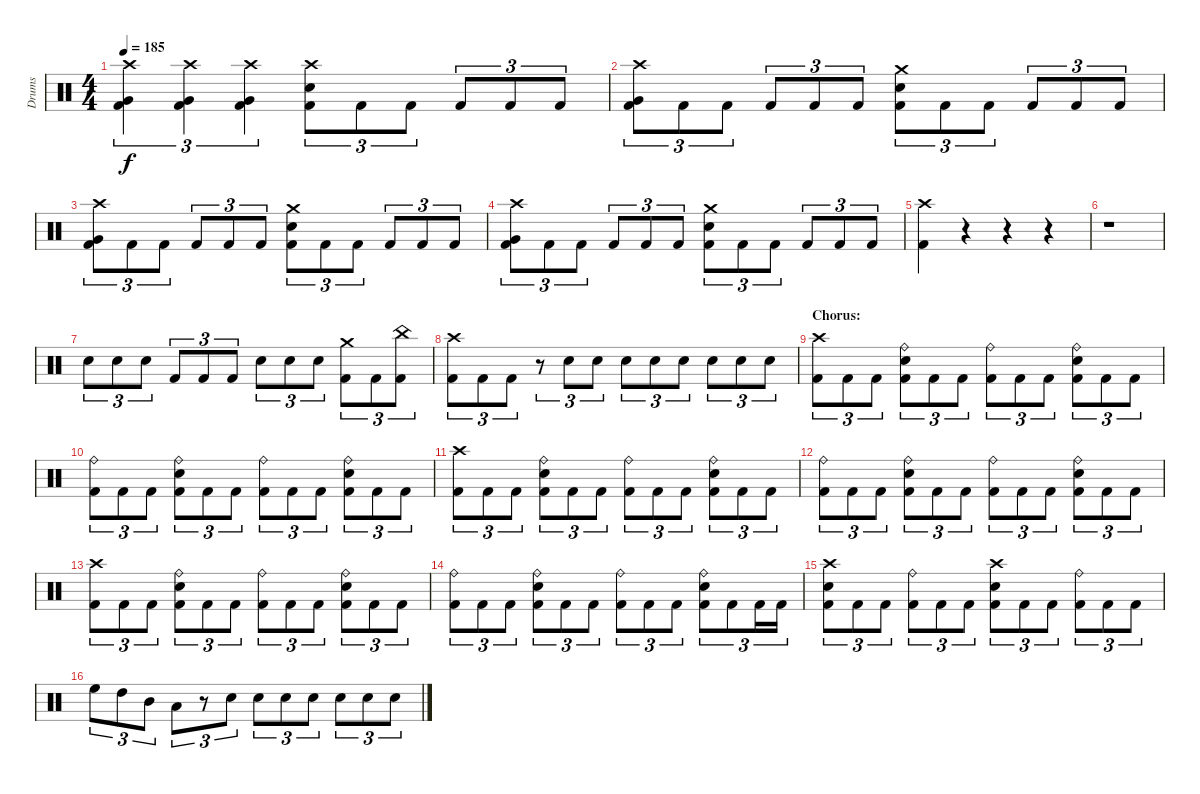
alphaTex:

\track ("Drums" "Drums") {instrument percussion}
\staff {score}
\articulation defaults
\ts (4 4)
\tempo 185
\clef neutral
\ks c
("Crash high (hit)" "Very Low Tom (hit)" "Kick (hit) 2").4{tu (3 2) dy f} ("Crash high (hit)" "Very Low Tom (hit)" "Kick (hit) 2").4{tu (3 2)} ("Crash high (hit)" "Very Low Tom (hit)" "Kick (hit) 2").4{tu (3 2)} ("Crash high (hit)" "Electric Snare (hit)" "Kick (hit) 2").8{tu (3 2)} "Kick (hit) 2".8{tu (3 2)} "Kick (hit) 2".8{tu (3 2)} "Kick (hit) 2".8{tu (3 2)} "Kick (hit) 2".8{tu (3 2)} "Kick (hit) 2".8{tu (3 2)} |
("Crash high (hit)" "Very Low Tom (hit)" "Kick (hit) 2").8{tu (3 2)} "Kick (hit) 2".8{tu (3 2)} "Kick (hit) 2".8{tu (3 2)} "Kick (hit) 2".8{tu (3 2)} "Kick (hit) 2".8{tu (3 2)} "Kick (hit) 2".8{tu (3 2)} ("Crash medium (hit)" "Electric Snare (hit)" "Kick (hit) 2").8{tu (3 2)} "Kick (hit) 2".8{tu (3 2)} "Kick (hit) 2".8{tu (3 2)} "Kick (hit) 2".8{tu (3 2)} "Kick (hit) 2".8{tu (3 2)} "Kick (hit) 2".8{tu (3 2)} |
("Crash high (hit)" "Very Low Tom (hit)" "Kick (hit) 2").8{tu (3 2)} "Kick (hit) 2".8{tu (3 2)} "Kick (hit) 2".8{tu (3 2)} "Kick (hit) 2".8{tu (3 2)} "Kick (hit) 2".8{tu (3 2)} "Kick (hit) 2".8{tu (3 2)} ("Crash medium (hit)" "Electric Snare (hit)" "Kick (hit) 2").8{tu (3 2)} "Kick (hit) 2".8{tu (3 2)} "Kick (hit) 2".8{tu (3 2)} "Kick (hit) 2".8{tu (3 2)} "Kick (hit) 2".8{tu (3 2)} "Kick (hit) 2".8{tu (3 2)} |
("Crash high (hit)" "Very Low Tom (hit)" "Kick (hit) 2").8{tu (3 2)} "Kick (hit) 2".8{tu (3 2)} "Kick (hit) 2".8{tu (3 2)} "Kick (hit) 2".8{tu (3 2)} "Kick (hit) 2".8{tu (3 2)} "Kick (hit) 2".8{tu (3 2)} ("Crash medium (hit)" "Electric Snare (hit)" "Kick (hit) 2").8{tu (3 2)} "Kick (hit) 2".8{tu (3 2)} "Kick (hit) 2".8{tu (3 2)} "Kick (hit) 2".8{tu (3 2)} "Kick (hit) 2".8{tu (3 2)} "Kick (hit) 2".8{tu (3 2)} |
("Crash high (hit)" "Kick (hit) 2").4 r.4 r.4 r.4 |
r.1 |
"Electric Snare (hit)".8{tu (3 2)} "Electric Snare (hit)".8{tu (3 2)} "Electric Snare (hit)".8{tu (3 2)} "Kick (hit) 2".8{tu (3 2)} "Kick (hit) 2".8{tu (3 2)} "Kick (hit) 2".8{tu (3 2)} "Electric Snare (hit)".8{tu (3 2)} "Electric Snare (hit)".8{tu (3 2)} "Electric Snare (hit)".8{tu (3 2)} ("Crash medium (hit)" "Kick (hit) 2").8{tu (3 2)} "Kick (hit) 2".8{tu (3 2)} ("China (hit)" "Kick (hit) 2").8{tu (3 2)} |
("Crash high (hit)" "Kick (hit) 2").8{tu (3 2)} "Kick (hit) 2".8{tu (3 2)} "Kick (hit) 2".8{tu (3 2)} r.8{tu (3 2)} "Electric Snare (hit)".8{tu (3 2)} "Electric Snare (hit)".8{tu (3 2)} "Electric Snare (hit)".8{tu (3 2)} "Electric Snare (hit)".8{tu (3 2)} "Electric Snare (hit)".8{tu (3 2)} "Electric Snare (hit)".8{tu (3 2)} "Electric Snare (hit)".8{tu (3 2)} "Electric Snare (hit)".8{tu (3 2)} |
\section ("" "Chorus:")
("Crash high (hit)" "Kick (hit) 2").8{tu (3 2)} "Kick (hit) 2".8{tu (3 2)} "Kick (hit) 2".8{tu (3 2)} ("Ride (bell)" "Electric Snare (hit)" "Kick (hit) 2").8{tu (3 2)} "Kick (hit) 2".8{tu (3 2)} "Kick (hit) 2".8{tu (3 2)} ("Ride (bell)" "Kick (hit) 2").8{tu (3 2)} "Kick (hit) 2".8{tu (3 2)} "Kick (hit) 2".8{tu (3 2)} ("Ride (bell)" "Electric Snare (hit)" "Kick (hit) 2").8{tu (3 2)} "Kick (hit) 2".8{tu (3 2)} "Kick (hit) 2".8{tu (3 2)} |
("Ride (bell)" "Kick (hit) 2").8{tu (3 2)} "Kick (hit) 2".8{tu (3 2)} "Kick (hit) 2".8{tu (3 2)} ("Ride (bell)" "Electric Snare (hit)" "Kick (hit) 2").8{tu (3 2)} "Kick (hit) 2".8{tu (3 2)} "Kick (hit) 2".8{tu (3 2)} ("Ride (bell)" "Kick (hit) 2").8{tu (3 2)} "Kick (hit) 2".8{tu (3 2)} "Kick (hit) 2".8{tu (3 2)} ("Ride (bell)" "Electric Snare (hit)" "Kick (hit) 2").8{tu (3 2)} "Kick (hit) 2".8{tu (3 2)} "Kick (hit) 2".8{tu (3 2)} |
("Crash high (hit)" "Kick (hit) 2").8{tu (3 2)} "Kick (hit) 2".8{tu (3 2)} "Kick (hit) 2".8{tu (3 2)} ("Ride (bell)" "Electric Snare (hit)" "Kick (hit) 2").8{tu (3 2)} "Kick (hit) 2".8{tu (3 2)} "Kick (hit) 2".8{tu (3 2)} ("Ride (bell)" "Kick (hit) 2").8{tu (3 2)} "Kick (hit) 2".8{tu (3 2)} "Kick (hit) 2".8{tu (3 2)} ("Ride (bell)" "Electric Snare (hit)" "Kick (hit) 2").8{tu (3 2)} "Kick (hit) 2".8{tu (3 2)} "Kick (hit) 2".8{tu (3 2)} |
("Ride (bell)" "Kick (hit) 2").8{tu (3 2)} "Kick (hit) 2".8{tu (3 2)} "Kick (hit) 2".8{tu (3 2)} ("Ride (bell)" "Electric Snare (hit)" "Kick (hit) 2").8{tu (3 2)} "Kick (hit) 2".8{tu (3 2)} "Kick (hit) 2".8{tu (3 2)} ("Ride (bell)" "Kick (hit) 2").8{tu (3 2)} "Kick (hit) 2".8{tu (3 2)} "Kick (hit) 2".8{tu (3 2)} ("Ride (bell)" "Electric Snare (hit)" "Kick (hit) 2").8{tu (3 2)} "Kick (hit) 2".8{tu (3 2)} "Kick (hit) 2".8{tu (3 2)} |
("Crash high (hit)" "Kick (hit) 2").8{tu (3 2)} "Kick (hit) 2".8{tu (3 2)} "Kick (hit) 2".8{tu (3 2)} ("Ride (bell)" "Electric Snare (hit)" "Kick (hit) 2").8{tu (3 2)} "Kick (hit) 2".8{tu (3 2)} "Kick (hit) 2".8{tu (3 2)} ("Ride (bell)" "Kick (hit) 2").8{tu (3 2)} "Kick (hit) 2".8{tu (3 2)} "Kick (hit) 2".8{tu (3 2)} ("Ride (bell)" "Electric Snare (hit)" "Kick (hit) 2").8{tu (3 2)} "Kick (hit) 2".8{tu (3 2)} "Kick (hit) 2".8{tu (3 2)} |
("Ride (bell)" "Kick (hit) 2").8{tu (3 2)} "Kick (hit) 2".8{tu (3 2)} "Kick (hit) 2".8{tu (3 2)} ("Ride (bell)" "Electric Snare (hit)" "Kick (hit) 2").8{tu (3 2)} "Kick (hit) 2".8{tu (3 2)} "Kick (hit) 2".8{tu (3 2)} ("Ride (bell)" "Kick (hit) 2").8{tu (3 2)} "Kick (hit) 2".8{tu (3 2)} "Kick (hit) 2".8{tu (3 2)} ("Ride (bell)" "Electric Snare (hit)" "Kick (hit) 2").8{tu (3 2)} "Kick (hit) 2".8{tu (3 2)} "Kick (hit) 2".16{tu (3 2)} "Kick (hit) 2".16{tu (3 2)} |
("Crash high (hit)" "Electric Snare (hit)" "Kick (hit) 2").8{tu (3 2)} "Kick (hit) 2".8{tu (3 2)} "Kick (hit) 2".8{tu (3 2)} ("Ride (bell)" "Kick (hit) 2").8{tu (3 2)} "Kick (hit) 2".8{tu (3 2)} "Kick (hit) 2".8{tu (3 2)} ("Crash high (hit)" "Electric Snare (hit)" "Kick (hit) 2").8{tu (3 2)} "Kick (hit) 2".8{tu (3 2)} "Kick (hit) 2".8{tu (3 2)} ("Ride (bell)" "Kick (hit) 2").8{tu (3 2)} "Kick (hit) 2".8{tu (3 2)} "Kick (hit) 2".8{tu (3 2)} |
"High Floor Tom (hit)".8{tu (3 2)} "High Tom (hit)".8{tu (3 2)} "Mid Tom (hit)".8{tu (3 2)} "Low Tom (hit)".8{tu (3 2)} r.8{tu (3 2)} "Electric Snare (hit)".8{tu (3 2)} "Electric Snare (hit)".8{tu (3 2)} "Electric Snare (hit)".8{tu (3 2)} "Electric Snare (hit)".8{tu (3 2)} "Electric Snare (hit)".8{tu (3 2)} "Electric Snare (hit)".8{tu (3 2)} "Electric Snare (hit)".8{tu (3 2)}
